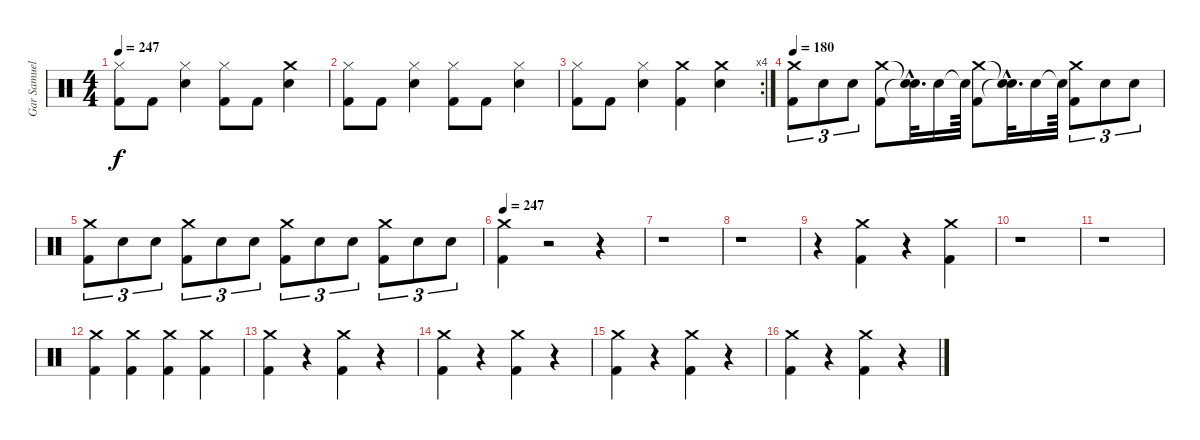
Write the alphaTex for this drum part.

\track ("Gar Samuelson (Drums)" "Gar Samuel") {instrument percussion}
\staff {score}
\articulation defaults
\ts (4 4)
\tempo 247
\clef neutral
\ks c
("Hi-Hat (closed)" "Kick (hit) 2").8{dy f} "Kick (hit) 2".8 ("Snare (hit) 2" "Hi-Hat (closed)").4 ("Hi-Hat (closed)" "Kick (hit) 2").8 "Kick (hit) 2".8 ("Crash medium (hit)" "Snare (hit) 2").4 |
("Hi-Hat (closed)" "Kick (hit) 2").8 "Kick (hit) 2".8 ("Snare (hit) 2" "Hi-Hat (closed)").4 ("Hi-Hat (closed)" "Kick (hit) 2").8 "Kick (hit) 2".8 ("Snare (hit) 2" "Hi-Hat (closed)").4 |
\rc 4
("Hi-Hat (closed)" "Kick (hit) 2").8 "Kick (hit) 2".8 ("Snare (hit) 2" "Hi-Hat (closed)").4 ("Crash medium (hit)" "Kick (hit) 2").4 ("Crash medium (hit)" "Snare (hit) 2").4 |
\tempo 180
("Crash medium (hit)" "Kick (hit) 2").8{tu (3 2)} "Snare (hit) 2".8{tu (3 2)} "Snare (hit) 2".8{tu (3 2)} ("Crash medium (hit)" "Kick (hit) 2").8 ("Snare (hit)"{hac t} "Snare (hit)"{hac t}).32{d} "Snare (hit) 2".16 "Snare (hit)"{t}.64 ("Crash medium (hit)" "Kick (hit) 2").8 ("Snare (hit)"{hac t} "Snare (hit)"{hac t}).32{d} "Snare (hit) 2".16 "Snare (hit)"{t}.64 ("Crash medium (hit)" "Kick (hit) 2").8{tu (3 2)} "Snare (hit) 2".8{tu (3 2)} "Snare (hit) 2".8{tu (3 2)} |
("Kick (hit) 2" "Crash medium (hit)").8{tu (3 2)} "Snare (hit) 2".8{tu (3 2)} "Snare (hit) 2".8{tu (3 2)} ("Kick (hit) 2" "Crash medium (hit)").8{tu (3 2)} "Snare (hit) 2".8{tu (3 2)} "Snare (hit) 2".8{tu (3 2)} ("Kick (hit) 2" "Crash medium (hit)").8{tu (3 2)} "Snare (hit) 2".8{tu (3 2)} "Snare (hit) 2".8{tu (3 2)} ("Kick (hit) 2" "Crash medium (hit)").8{tu (3 2)} "Snare (hit) 2".8{tu (3 2)} "Snare (hit) 2".8{tu (3 2)} |
\tempo 247
("Kick (hit) 2" "Crash medium (hit)").4 r.2 r.4 |
r.1 |
r.1 |
r.4 ("Kick (hit) 2" "Crash medium (hit)").4 r.4 ("Kick (hit) 2" "Crash medium (hit)").4 |
r.1 |
r.1 |
("Kick (hit) 2" "Crash medium (hit)").4 ("Kick (hit) 2" "Crash medium (hit)").4 ("Kick (hit) 2" "Crash medium (hit)").4 ("Kick (hit) 2" "Crash medium (hit)").4 |
("Crash medium (hit)" "Kick (hit) 2").4 r.4 ("Crash medium (hit)" "Kick (hit) 2").4 r.4 |
("Kick (hit) 2" "Crash medium (hit)").4 r.4 ("Kick (hit) 2" "Crash medium (hit)").4 r.4 |
("Kick (hit) 2" "Crash medium (hit)").4 r.4 ("Kick (hit) 2" "Crash medium (hit)").4 r.4 |
("Kick (hit) 2" "Crash medium (hit)").4 r.4 ("Kick (hit) 2" "Crash medium (hit)").4 r.4
